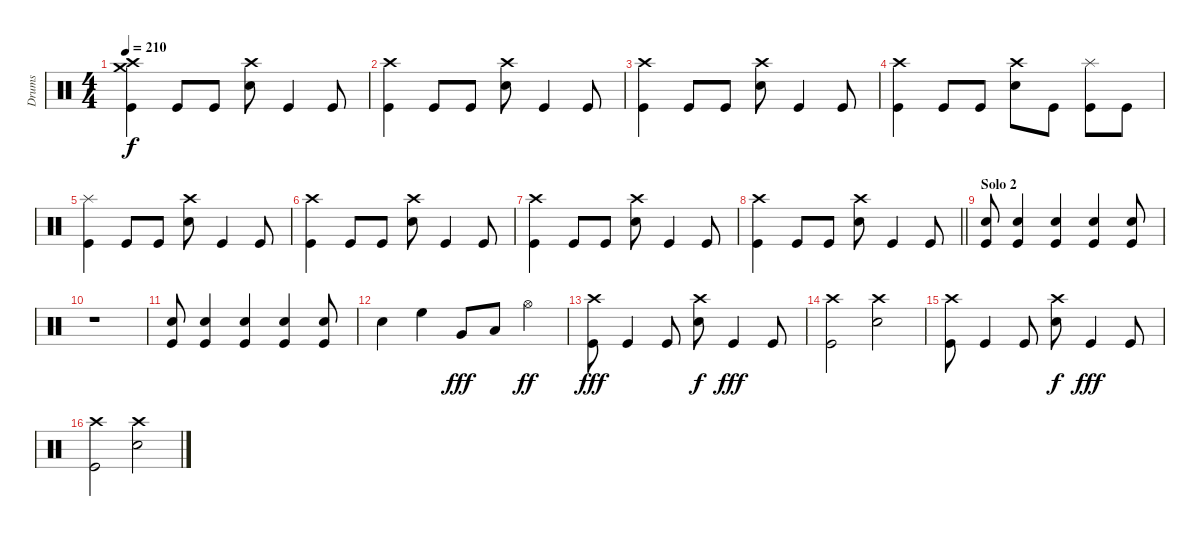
\track ("Drums" "Drums") {instrument percussion}
\staff {score}
\articulation defaults
\ts (4 4)
\tempo 210
\clef neutral
\ks c
("Crash high (hit)" "Crash medium (hit)" "Kick (hit)").4{dy f} "Kick (hit)".8 "Kick (hit)".8 ("Crash high (hit)" "Snare (hit) 2").8 "Kick (hit)".4 "Kick (hit)".8 |
("Crash high (hit)" "Kick (hit)").4 "Kick (hit)".8 "Kick (hit)".8 ("Crash high (hit)" "Snare (hit) 2").8 "Kick (hit)".4 "Kick (hit)".8 |
("Crash high (hit)" "Kick (hit)").4 "Kick (hit)".8 "Kick (hit)".8 ("Crash high (hit)" "Snare (hit) 2").8 "Kick (hit)".4 "Kick (hit)".8 |
("Crash high (hit)" "Kick (hit)").4 "Kick (hit)".8 "Kick (hit)".8 ("Crash high (hit)" "Snare (hit) 2").8 "Kick (hit)".8 ("Splash (hit)" "Kick (hit)").8 "Kick (hit)".8 |
("Splash (hit)" "Kick (hit)").4 "Kick (hit)".8 "Kick (hit)".8 ("Crash high (hit)" "Snare (hit) 2").8 "Kick (hit)".4 "Kick (hit)".8 |
("Crash high (hit)" "Kick (hit)").4 "Kick (hit)".8 "Kick (hit)".8 ("Crash high (hit)" "Snare (hit) 2").8 "Kick (hit)".4 "Kick (hit)".8 |
("Crash high (hit)" "Kick (hit)").4 "Kick (hit)".8 "Kick (hit)".8 ("Crash high (hit)" "Snare (hit) 2").8 "Kick (hit)".4 "Kick (hit)".8 |
\barLineRight lightlight
("Crash high (hit)" "Kick (hit)").4 "Kick (hit)".8 "Kick (hit)".8 ("Crash high (hit)" "Snare (hit) 2").8 "Kick (hit)".4 "Kick (hit)".8 |
\section ("" "Solo 2")
("Snare (hit) 2" "Kick (hit)").8 ("Snare (hit) 2" "Kick (hit)").4 ("Snare (hit) 2" "Kick (hit)").4 ("Snare (hit) 2" "Kick (hit)").4 ("Snare (hit) 2" "Kick (hit)").8 |
r.1 |
("Snare (hit) 2" "Kick (hit)").8 ("Snare (hit) 2" "Kick (hit)").4 ("Snare (hit) 2" "Kick (hit)").4 ("Snare (hit) 2" "Kick (hit)").4 ("Snare (hit) 2" "Kick (hit)").8 |
"Snare (hit) 2".4 "High Floor Tom (hit)".4 "Very Low Tom (hit)".8{dy fff} "Low Floor Tom (hit)".8 "Hi-Hat (open)".4{dy ff} |
("Crash high (hit)" "Kick (hit)").8{dy fff} "Kick (hit)".4 "Kick (hit)".8 ("Crash high (hit)" "Snare (hit) 2").8{dy f} "Kick (hit)".4{dy fff} "Kick (hit)".8 |
("Crash high (hit)" "Kick (hit)").2 ("Crash high (hit)" "Snare (hit) 2").2 |
("Crash high (hit)" "Kick (hit)").8 "Kick (hit)".4 "Kick (hit)".8 ("Crash high (hit)" "Snare (hit) 2").8{dy f} "Kick (hit)".4{dy fff} "Kick (hit)".8 |
("Crash high (hit)" "Kick (hit)").2 ("Crash high (hit)" "Snare (hit) 2").2
